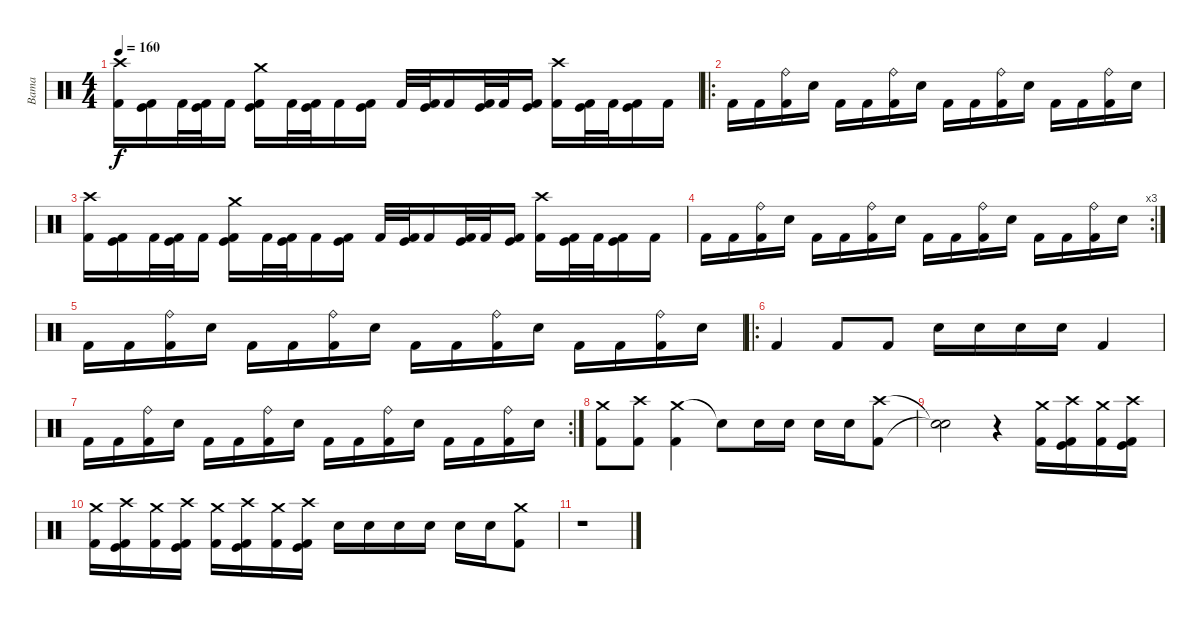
\track ("Bama" "Bama") {instrument percussion}
\staff {score}
\articulation defaults
\ts (4 4)
\tempo 160
\clef neutral
\ks c
("Crash high (hit)" "Kick (hit) 2").16{dy f} ("Kick (hit)" "Kick (hit) 2").16 "Kick (hit) 2".32 ("Kick (hit)" "Kick (hit) 2").32 "Kick (hit) 2".16 ("Crash medium (hit)" "Kick (hit)" "Kick (hit) 2").16 "Kick (hit) 2".32 ("Kick (hit)" "Kick (hit) 2").32 "Kick (hit) 2".16 ("Kick (hit)" "Kick (hit) 2").16 "Kick (hit) 2".32 ("Kick (hit)" "Kick (hit) 2").32 "Kick (hit) 2".16 ("Kick (hit)" "Kick (hit) 2").32 "Kick (hit) 2".32 ("Kick (hit)" "Kick (hit) 2").16 ("Crash high (hit)" "Kick (hit) 2").16 ("Kick (hit)" "Kick (hit) 2").32 "Kick (hit) 2".32 ("Kick (hit)" "Kick (hit) 2").16 "Kick (hit) 2".16 |
\ro "Kick (hit) 2".16 "Kick (hit) 2".16
("Ride (bell)" "Kick (hit) 2").16 "Electric Snare (hit)".16 "Kick (hit) 2".16 "Kick (hit) 2".16 ("Ride (bell)" "Kick (hit) 2").16 "Electric Snare (hit)".16 "Kick (hit) 2".16 "Kick (hit) 2".16 ("Ride (bell)" "Kick (hit) 2").16 "Electric Snare (hit)".16 "Kick (hit) 2".16 "Kick (hit) 2".16 ("Ride (bell)" "Kick (hit) 2").16 "Electric Snare (hit)".16 |
("Crash high (hit)" "Kick (hit) 2").16 ("Kick (hit)" "Kick (hit) 2").16 "Kick (hit) 2".32 ("Kick (hit)" "Kick (hit) 2").32 "Kick (hit) 2".16 ("Crash medium (hit)" "Kick (hit)" "Kick (hit) 2").16 "Kick (hit) 2".32 ("Kick (hit)" "Kick (hit) 2").32 "Kick (hit) 2".16 ("Kick (hit)" "Kick (hit) 2").16 "Kick (hit) 2".32 ("Kick (hit)" "Kick (hit) 2").32 "Kick (hit) 2".16 ("Kick (hit)" "Kick (hit) 2").32 "Kick (hit) 2".32 ("Kick (hit)" "Kick (hit) 2").16 ("Crash high (hit)" "Kick (hit) 2").16 ("Kick (hit)" "Kick (hit) 2").32 "Kick (hit) 2".32 ("Kick (hit)" "Kick (hit) 2").16 "Kick (hit) 2".16 |
\rc 3 "Kick (hit) 2".16 "Kick (hit) 2".16
("Ride (bell)" "Kick (hit) 2").16 "Electric Snare (hit)".16 "Kick (hit) 2".16 "Kick (hit) 2".16 ("Ride (bell)" "Kick (hit) 2").16 "Electric Snare (hit)".16 "Kick (hit) 2".16 "Kick (hit) 2".16 ("Ride (bell)" "Kick (hit) 2").16 "Electric Snare (hit)".16 "Kick (hit) 2".16 "Kick (hit) 2".16 ("Ride (bell)" "Kick (hit) 2").16 "Electric Snare (hit)".16 |
"Kick (hit) 2".16 "Kick (hit) 2".16 ("Ride (bell)" "Kick (hit) 2").16 "Electric Snare (hit)".16 "Kick (hit) 2".16 "Kick (hit) 2".16 ("Ride (bell)" "Kick (hit) 2").16 "Electric Snare (hit)".16 "Kick (hit) 2".16 "Kick (hit) 2".16 ("Ride (bell)" "Kick (hit) 2").16 "Electric Snare (hit)".16 "Kick (hit) 2".16 "Kick (hit) 2".16 ("Ride (bell)" "Kick (hit) 2").16 "Electric Snare (hit)".16 |
\ro "Kick (hit) 2".4 "Kick (hit) 2".8 "Kick (hit) 2".8 "Electric Snare (hit)".16 "Electric Snare (hit)".16 "Electric Snare (hit)".16 "Electric Snare (hit)".16 "Kick (hit) 2".4
|
\rc 2 "Kick (hit) 2".16 "Kick (hit) 2".16
("Ride (bell)" "Kick (hit) 2").16 "Electric Snare (hit)".16 "Kick (hit) 2".16 "Kick (hit) 2".16 ("Ride (bell)" "Kick (hit) 2").16 "Electric Snare (hit)".16 "Kick (hit) 2".16 "Kick (hit) 2".16 ("Ride (bell)" "Kick (hit) 2").16 "Electric Snare (hit)".16 "Kick (hit) 2".16 "Kick (hit) 2".16 ("Ride (bell)" "Kick (hit) 2").16 "Electric Snare (hit)".16 |
("Crash medium (hit)" "Kick (hit) 2").8 ("Crash high (hit)" "Kick (hit) 2").8 ("Crash medium (hit)" "Kick (hit) 2").4 "Snare (hit)"{t}.8 "Electric Snare (hit)".16 "Electric Snare (hit)".16 "Electric Snare (hit)".16 "Electric Snare (hit)".16 ("Crash high (hit)" "Kick (hit) 2").8 |
("Snare (hit)"{t} "Snare (hit)"{t}).2 r.4 ("Crash medium (hit)" "Kick (hit) 2").16 ("Crash high (hit)" "Kick (hit)" "Kick (hit) 2").16 ("Crash medium (hit)" "Kick (hit) 2").16 ("Crash high (hit)" "Kick (hit)" "Kick (hit) 2").16 |
("Crash medium (hit)" "Kick (hit) 2").16 ("Crash high (hit)" "Kick (hit)" "Kick (hit) 2").16 ("Crash medium (hit)" "Kick (hit) 2").16 ("Crash high (hit)" "Kick (hit)" "Kick (hit) 2").16 ("Crash medium (hit)" "Kick (hit) 2").16 ("Crash high (hit)" "Kick (hit)" "Kick (hit) 2").16 ("Crash medium (hit)" "Kick (hit) 2").16 ("Crash high (hit)" "Kick (hit)" "Kick (hit) 2").16 "Electric Snare (hit)".16 "Electric Snare (hit)".16 "Electric Snare (hit)".16 "Electric Snare (hit)".16 "Electric Snare (hit)".16 "Electric Snare (hit)".16 ("Crash medium (hit)" "Kick (hit) 2").8 |
r.1
